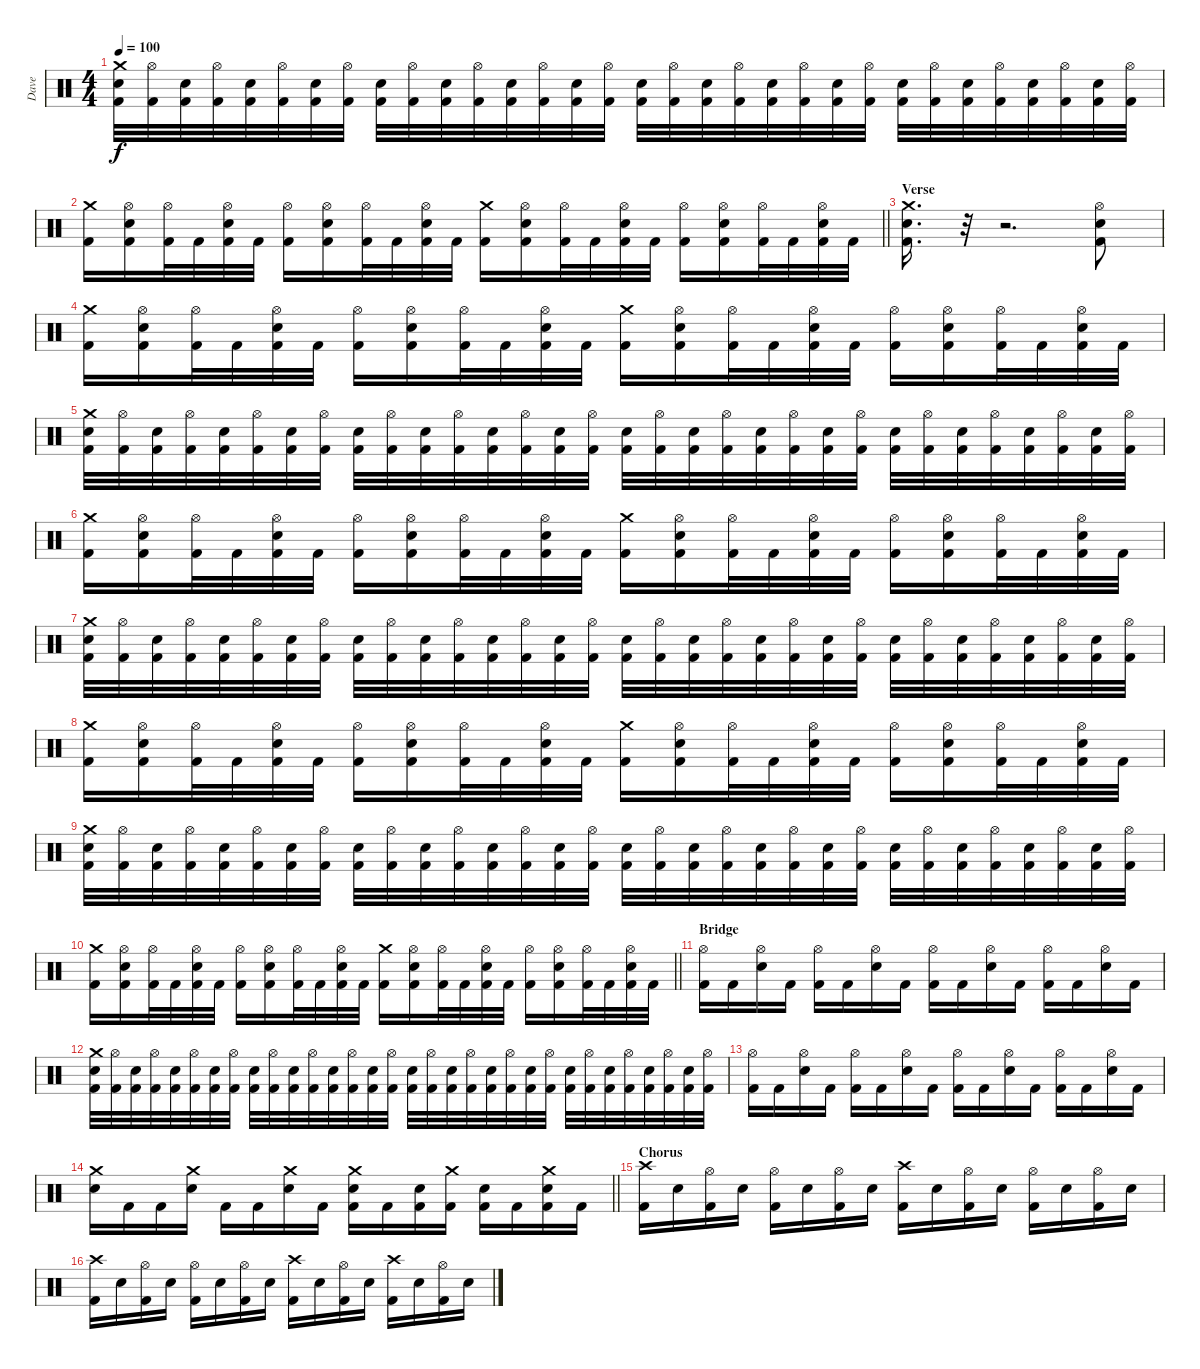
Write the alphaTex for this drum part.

\track ("Dave" "Dave") {instrument percussion}
\staff {score}
\articulation defaults
\ts (4 4)
\tempo 100
\clef neutral
\ks c
("Crash medium (hit)" "Snare (hit) 2" "Kick (hit) 2").32{dy f} ("Hi-Hat (open)" "Kick (hit) 2").32 ("Snare (hit) 2" "Kick (hit) 2").32 ("Hi-Hat (open)" "Kick (hit) 2").32 ("Snare (hit) 2" "Kick (hit) 2").32 ("Hi-Hat (open)" "Kick (hit) 2").32 ("Snare (hit) 2" "Kick (hit) 2").32 ("Hi-Hat (open)" "Kick (hit) 2").32 ("Snare (hit) 2" "Kick (hit) 2").32 ("Hi-Hat (open)" "Kick (hit) 2").32 ("Snare (hit) 2" "Kick (hit) 2").32 ("Hi-Hat (open)" "Kick (hit) 2").32 ("Snare (hit) 2" "Kick (hit) 2").32 ("Hi-Hat (open)" "Kick (hit) 2").32 ("Snare (hit) 2" "Kick (hit) 2").32 ("Hi-Hat (open)" "Kick (hit) 2").32 ("Snare (hit) 2" "Kick (hit) 2").32 ("Hi-Hat (open)" "Kick (hit) 2").32 ("Snare (hit) 2" "Kick (hit) 2").32 ("Hi-Hat (open)" "Kick (hit) 2").32 ("Snare (hit) 2" "Kick (hit) 2").32 ("Hi-Hat (open)" "Kick (hit) 2").32 ("Snare (hit) 2" "Kick (hit) 2").32 ("Hi-Hat (open)" "Kick (hit) 2").32 ("Snare (hit) 2" "Kick (hit) 2").32 ("Hi-Hat (open)" "Kick (hit) 2").32 ("Snare (hit) 2" "Kick (hit) 2").32 ("Hi-Hat (open)" "Kick (hit) 2").32 ("Snare (hit) 2" "Kick (hit) 2").32 ("Hi-Hat (open)" "Kick (hit) 2").32 ("Snare (hit) 2" "Kick (hit) 2").32 ("Hi-Hat (open)" "Kick (hit) 2").32 |
\barLineRight lightlight
("Crash medium (hit)" "Kick (hit) 2").16 ("Hi-Hat (open)" "Snare (hit) 2" "Kick (hit) 2").16 ("Hi-Hat (open)" "Kick (hit) 2").32 "Kick (hit) 2".32 ("Hi-Hat (open)" "Snare (hit) 2" "Kick (hit) 2").32 "Kick (hit) 2".32 ("Hi-Hat (open)" "Kick (hit) 2").16 ("Hi-Hat (open)" "Snare (hit) 2" "Kick (hit) 2").16 ("Hi-Hat (open)" "Kick (hit) 2").32 "Kick (hit) 2".32 ("Hi-Hat (open)" "Snare (hit) 2" "Kick (hit) 2").32 "Kick (hit) 2".32 ("Crash medium (hit)" "Kick (hit) 2").16 ("Hi-Hat (open)" "Snare (hit) 2" "Kick (hit) 2").16 ("Hi-Hat (open)" "Kick (hit) 2").32 "Kick (hit) 2".32 ("Hi-Hat (open)" "Snare (hit) 2" "Kick (hit) 2").32 "Kick (hit) 2".32 ("Hi-Hat (open)" "Kick (hit) 2").16 ("Hi-Hat (open)" "Snare (hit) 2" "Kick (hit) 2").16 ("Hi-Hat (open)" "Kick (hit) 2").32 "Kick (hit) 2".32 ("Hi-Hat (open)" "Snare (hit) 2" "Kick (hit) 2").32 "Kick (hit) 2".32 |
\section ("" "Verse")
("Crash medium (hit)" "Snare (hit) 2" "Kick (hit) 2").16{d} r.32 r.2{d} ("Hi-Hat (open)" "Snare (hit) 2" "Kick (hit) 2").8 |
("Crash medium (hit)" "Kick (hit) 2").16 ("Hi-Hat (open)" "Snare (hit) 2" "Kick (hit) 2").16 ("Hi-Hat (open)" "Kick (hit) 2").32 "Kick (hit) 2".32 ("Hi-Hat (open)" "Snare (hit) 2" "Kick (hit) 2").32 "Kick (hit) 2".32 ("Hi-Hat (open)" "Kick (hit) 2").16 ("Hi-Hat (open)" "Snare (hit) 2" "Kick (hit) 2").16 ("Hi-Hat (open)" "Kick (hit) 2").32 "Kick (hit) 2".32 ("Hi-Hat (open)" "Snare (hit) 2" "Kick (hit) 2").32 "Kick (hit) 2".32 ("Crash medium (hit)" "Kick (hit) 2").16 ("Hi-Hat (open)" "Snare (hit) 2" "Kick (hit) 2").16 ("Hi-Hat (open)" "Kick (hit) 2").32 "Kick (hit) 2".32 ("Hi-Hat (open)" "Snare (hit) 2" "Kick (hit) 2").32 "Kick (hit) 2".32 ("Hi-Hat (open)" "Kick (hit) 2").16 ("Hi-Hat (open)" "Snare (hit) 2" "Kick (hit) 2").16 ("Hi-Hat (open)" "Kick (hit) 2").32 "Kick (hit) 2".32 ("Hi-Hat (open)" "Snare (hit) 2" "Kick (hit) 2").32 "Kick (hit) 2".32 |
("Crash medium (hit)" "Snare (hit) 2" "Kick (hit) 2").32 ("Hi-Hat (open)" "Kick (hit) 2").32 ("Snare (hit) 2" "Kick (hit) 2").32 ("Hi-Hat (open)" "Kick (hit) 2").32 ("Snare (hit) 2" "Kick (hit) 2").32 ("Hi-Hat (open)" "Kick (hit) 2").32 ("Snare (hit) 2" "Kick (hit) 2").32 ("Hi-Hat (open)" "Kick (hit) 2").32 ("Snare (hit) 2" "Kick (hit) 2").32 ("Hi-Hat (open)" "Kick (hit) 2").32 ("Snare (hit) 2" "Kick (hit) 2").32 ("Hi-Hat (open)" "Kick (hit) 2").32 ("Snare (hit) 2" "Kick (hit) 2").32 ("Hi-Hat (open)" "Kick (hit) 2").32 ("Snare (hit) 2" "Kick (hit) 2").32 ("Hi-Hat (open)" "Kick (hit) 2").32 ("Snare (hit) 2" "Kick (hit) 2").32 ("Hi-Hat (open)" "Kick (hit) 2").32 ("Snare (hit) 2" "Kick (hit) 2").32 ("Hi-Hat (open)" "Kick (hit) 2").32 ("Snare (hit) 2" "Kick (hit) 2").32 ("Hi-Hat (open)" "Kick (hit) 2").32 ("Snare (hit) 2" "Kick (hit) 2").32 ("Hi-Hat (open)" "Kick (hit) 2").32 ("Snare (hit) 2" "Kick (hit) 2").32 ("Hi-Hat (open)" "Kick (hit) 2").32 ("Snare (hit) 2" "Kick (hit) 2").32 ("Hi-Hat (open)" "Kick (hit) 2").32 ("Snare (hit) 2" "Kick (hit) 2").32 ("Hi-Hat (open)" "Kick (hit) 2").32 ("Snare (hit) 2" "Kick (hit) 2").32 ("Hi-Hat (open)" "Kick (hit) 2").32 |
("Crash medium (hit)" "Kick (hit) 2").16 ("Hi-Hat (open)" "Snare (hit) 2" "Kick (hit) 2").16 ("Hi-Hat (open)" "Kick (hit) 2").32 "Kick (hit) 2".32 ("Hi-Hat (open)" "Snare (hit) 2" "Kick (hit) 2").32 "Kick (hit) 2".32 ("Hi-Hat (open)" "Kick (hit) 2").16 ("Hi-Hat (open)" "Snare (hit) 2" "Kick (hit) 2").16 ("Hi-Hat (open)" "Kick (hit) 2").32 "Kick (hit) 2".32 ("Hi-Hat (open)" "Snare (hit) 2" "Kick (hit) 2").32 "Kick (hit) 2".32 ("Crash medium (hit)" "Kick (hit) 2").16 ("Hi-Hat (open)" "Snare (hit) 2" "Kick (hit) 2").16 ("Hi-Hat (open)" "Kick (hit) 2").32 "Kick (hit) 2".32 ("Hi-Hat (open)" "Snare (hit) 2" "Kick (hit) 2").32 "Kick (hit) 2".32 ("Hi-Hat (open)" "Kick (hit) 2").16 ("Hi-Hat (open)" "Snare (hit) 2" "Kick (hit) 2").16 ("Hi-Hat (open)" "Kick (hit) 2").32 "Kick (hit) 2".32 ("Hi-Hat (open)" "Snare (hit) 2" "Kick (hit) 2").32 "Kick (hit) 2".32 |
("Crash medium (hit)" "Snare (hit) 2" "Kick (hit) 2").32 ("Hi-Hat (open)" "Kick (hit) 2").32 ("Snare (hit) 2" "Kick (hit) 2").32 ("Hi-Hat (open)" "Kick (hit) 2").32 ("Snare (hit) 2" "Kick (hit) 2").32 ("Hi-Hat (open)" "Kick (hit) 2").32 ("Snare (hit) 2" "Kick (hit) 2").32 ("Hi-Hat (open)" "Kick (hit) 2").32 ("Snare (hit) 2" "Kick (hit) 2").32 ("Hi-Hat (open)" "Kick (hit) 2").32 ("Snare (hit) 2" "Kick (hit) 2").32 ("Hi-Hat (open)" "Kick (hit) 2").32 ("Snare (hit) 2" "Kick (hit) 2").32 ("Hi-Hat (open)" "Kick (hit) 2").32 ("Snare (hit) 2" "Kick (hit) 2").32 ("Hi-Hat (open)" "Kick (hit) 2").32 ("Snare (hit) 2" "Kick (hit) 2").32 ("Hi-Hat (open)" "Kick (hit) 2").32 ("Snare (hit) 2" "Kick (hit) 2").32 ("Hi-Hat (open)" "Kick (hit) 2").32 ("Snare (hit) 2" "Kick (hit) 2").32 ("Hi-Hat (open)" "Kick (hit) 2").32 ("Snare (hit) 2" "Kick (hit) 2").32 ("Hi-Hat (open)" "Kick (hit) 2").32 ("Snare (hit) 2" "Kick (hit) 2").32 ("Hi-Hat (open)" "Kick (hit) 2").32 ("Snare (hit) 2" "Kick (hit) 2").32 ("Hi-Hat (open)" "Kick (hit) 2").32 ("Snare (hit) 2" "Kick (hit) 2").32 ("Hi-Hat (open)" "Kick (hit) 2").32 ("Snare (hit) 2" "Kick (hit) 2").32 ("Hi-Hat (open)" "Kick (hit) 2").32 |
("Crash medium (hit)" "Kick (hit) 2").16 ("Hi-Hat (open)" "Snare (hit) 2" "Kick (hit) 2").16 ("Hi-Hat (open)" "Kick (hit) 2").32 "Kick (hit) 2".32 ("Hi-Hat (open)" "Snare (hit) 2" "Kick (hit) 2").32 "Kick (hit) 2".32 ("Hi-Hat (open)" "Kick (hit) 2").16 ("Hi-Hat (open)" "Snare (hit) 2" "Kick (hit) 2").16 ("Hi-Hat (open)" "Kick (hit) 2").32 "Kick (hit) 2".32 ("Hi-Hat (open)" "Snare (hit) 2" "Kick (hit) 2").32 "Kick (hit) 2".32 ("Crash medium (hit)" "Kick (hit) 2").16 ("Hi-Hat (open)" "Snare (hit) 2" "Kick (hit) 2").16 ("Hi-Hat (open)" "Kick (hit) 2").32 "Kick (hit) 2".32 ("Hi-Hat (open)" "Snare (hit) 2" "Kick (hit) 2").32 "Kick (hit) 2".32 ("Hi-Hat (open)" "Kick (hit) 2").16 ("Hi-Hat (open)" "Snare (hit) 2" "Kick (hit) 2").16 ("Hi-Hat (open)" "Kick (hit) 2").32 "Kick (hit) 2".32 ("Hi-Hat (open)" "Snare (hit) 2" "Kick (hit) 2").32 "Kick (hit) 2".32 |
("Crash medium (hit)" "Snare (hit) 2" "Kick (hit) 2").32 ("Hi-Hat (open)" "Kick (hit) 2").32 ("Snare (hit) 2" "Kick (hit) 2").32 ("Hi-Hat (open)" "Kick (hit) 2").32 ("Snare (hit) 2" "Kick (hit) 2").32 ("Hi-Hat (open)" "Kick (hit) 2").32 ("Snare (hit) 2" "Kick (hit) 2").32 ("Hi-Hat (open)" "Kick (hit) 2").32 ("Snare (hit) 2" "Kick (hit) 2").32 ("Hi-Hat (open)" "Kick (hit) 2").32 ("Snare (hit) 2" "Kick (hit) 2").32 ("Hi-Hat (open)" "Kick (hit) 2").32 ("Snare (hit) 2" "Kick (hit) 2").32 ("Hi-Hat (open)" "Kick (hit) 2").32 ("Snare (hit) 2" "Kick (hit) 2").32 ("Hi-Hat (open)" "Kick (hit) 2").32 ("Snare (hit) 2" "Kick (hit) 2").32 ("Hi-Hat (open)" "Kick (hit) 2").32 ("Snare (hit) 2" "Kick (hit) 2").32 ("Hi-Hat (open)" "Kick (hit) 2").32 ("Snare (hit) 2" "Kick (hit) 2").32 ("Hi-Hat (open)" "Kick (hit) 2").32 ("Snare (hit) 2" "Kick (hit) 2").32 ("Hi-Hat (open)" "Kick (hit) 2").32 ("Snare (hit) 2" "Kick (hit) 2").32 ("Hi-Hat (open)" "Kick (hit) 2").32 ("Snare (hit) 2" "Kick (hit) 2").32 ("Hi-Hat (open)" "Kick (hit) 2").32 ("Snare (hit) 2" "Kick (hit) 2").32 ("Hi-Hat (open)" "Kick (hit) 2").32 ("Snare (hit) 2" "Kick (hit) 2").32 ("Hi-Hat (open)" "Kick (hit) 2").32 |
\barLineRight lightlight
("Crash medium (hit)" "Kick (hit) 2").16 ("Hi-Hat (open)" "Snare (hit) 2" "Kick (hit) 2").16 ("Hi-Hat (open)" "Kick (hit) 2").32 "Kick (hit) 2".32 ("Hi-Hat (open)" "Snare (hit) 2" "Kick (hit) 2").32 "Kick (hit) 2".32 ("Hi-Hat (open)" "Kick (hit) 2").16 ("Hi-Hat (open)" "Snare (hit) 2" "Kick (hit) 2").16 ("Hi-Hat (open)" "Kick (hit) 2").32 "Kick (hit) 2".32 ("Hi-Hat (open)" "Snare (hit) 2" "Kick (hit) 2").32 "Kick (hit) 2".32 ("Crash medium (hit)" "Kick (hit) 2").16 ("Hi-Hat (open)" "Snare (hit) 2" "Kick (hit) 2").16 ("Hi-Hat (open)" "Kick (hit) 2").32 "Kick (hit) 2".32 ("Hi-Hat (open)" "Snare (hit) 2" "Kick (hit) 2").32 "Kick (hit) 2".32 ("Hi-Hat (open)" "Kick (hit) 2").16 ("Hi-Hat (open)" "Snare (hit) 2" "Kick (hit) 2").16 ("Hi-Hat (open)" "Kick (hit) 2").32 "Kick (hit) 2".32 ("Hi-Hat (open)" "Snare (hit) 2" "Kick (hit) 2").32 "Kick (hit) 2".32 |
\section ("" "Bridge")
("Hi-Hat (open)" "Kick (hit) 2").16 "Kick (hit) 2".16 ("Hi-Hat (open)" "Snare (hit) 2").16 "Kick (hit) 2".16 ("Hi-Hat (open)" "Kick (hit) 2").16 "Kick (hit) 2".16 ("Hi-Hat (open)" "Snare (hit) 2").16 "Kick (hit) 2".16 ("Hi-Hat (open)" "Kick (hit) 2").16 "Kick (hit) 2".16 ("Hi-Hat (open)" "Snare (hit) 2").16 "Kick (hit) 2".16 ("Hi-Hat (open)" "Kick (hit) 2").16 "Kick (hit) 2".16 ("Hi-Hat (open)" "Snare (hit) 2").16 "Kick (hit) 2".16 |
("Crash medium (hit)" "Snare (hit) 2" "Kick (hit) 2").32 ("Hi-Hat (open)" "Kick (hit) 2").32 ("Snare (hit) 2" "Kick (hit) 2").32 ("Hi-Hat (open)" "Kick (hit) 2").32 ("Snare (hit) 2" "Kick (hit) 2").32 ("Hi-Hat (open)" "Kick (hit) 2").32 ("Snare (hit) 2" "Kick (hit) 2").32 ("Hi-Hat (open)" "Kick (hit) 2").32 ("Snare (hit) 2" "Kick (hit) 2").32 ("Hi-Hat (open)" "Kick (hit) 2").32 ("Snare (hit) 2" "Kick (hit) 2").32 ("Hi-Hat (open)" "Kick (hit) 2").32 ("Snare (hit) 2" "Kick (hit) 2").32 ("Hi-Hat (open)" "Kick (hit) 2").32 ("Snare (hit) 2" "Kick (hit) 2").32 ("Hi-Hat (open)" "Kick (hit) 2").32 ("Snare (hit) 2" "Kick (hit) 2").32 ("Hi-Hat (open)" "Kick (hit) 2").32 ("Snare (hit) 2" "Kick (hit) 2").32 ("Hi-Hat (open)" "Kick (hit) 2").32 ("Snare (hit) 2" "Kick (hit) 2").32 ("Hi-Hat (open)" "Kick (hit) 2").32 ("Snare (hit) 2" "Kick (hit) 2").32 ("Hi-Hat (open)" "Kick (hit) 2").32 ("Snare (hit) 2" "Kick (hit) 2").32 ("Hi-Hat (open)" "Kick (hit) 2").32 ("Snare (hit) 2" "Kick (hit) 2").32 ("Hi-Hat (open)" "Kick (hit) 2").32 ("Snare (hit) 2" "Kick (hit) 2").32 ("Hi-Hat (open)" "Kick (hit) 2").32 ("Snare (hit) 2" "Kick (hit) 2").32 ("Hi-Hat (open)" "Kick (hit) 2").32 |
("Hi-Hat (open)" "Kick (hit) 2").16 "Kick (hit) 2".16 ("Hi-Hat (open)" "Snare (hit) 2").16 "Kick (hit) 2".16 ("Hi-Hat (open)" "Kick (hit) 2").16 "Kick (hit) 2".16 ("Hi-Hat (open)" "Snare (hit) 2").16 "Kick (hit) 2".16 ("Hi-Hat (open)" "Kick (hit) 2").16 "Kick (hit) 2".16 ("Hi-Hat (open)" "Snare (hit) 2").16 "Kick (hit) 2".16 ("Hi-Hat (open)" "Kick (hit) 2").16 "Kick (hit) 2".16 ("Hi-Hat (open)" "Snare (hit) 2").16 "Kick (hit) 2".16 |
\barLineRight lightlight
("Crash medium (hit)" "Snare (hit) 2").16 "Kick (hit) 2".16 "Kick (hit) 2".16 ("Crash medium (hit)" "Snare (hit) 2").16 "Kick (hit) 2".16 "Kick (hit) 2".16 ("Crash medium (hit)" "Snare (hit) 2").16 "Kick (hit) 2".16 ("Crash medium (hit)" "Snare (hit) 2" "Kick (hit) 2").16 "Kick (hit) 2".16 ("Snare (hit) 2" "Kick (hit) 2").16 ("Crash medium (hit)" "Kick (hit) 2").16 ("Snare (hit) 2" "Kick (hit) 2").16 "Kick (hit) 2".16 ("Crash medium (hit)" "Snare (hit) 2" "Kick (hit) 2").16 "Kick (hit) 2".16 |
\section ("" "Chorus")
("Crash high (hit)" "Kick (hit) 2").16 "Snare (hit) 2".16 ("Hi-Hat (open)" "Kick (hit) 2").16 "Snare (hit) 2".16 ("Hi-Hat (open)" "Kick (hit) 2").16 "Snare (hit) 2".16 ("Hi-Hat (open)" "Kick (hit) 2").16 "Snare (hit) 2".16 ("Crash high (hit)" "Kick (hit) 2").16 "Snare (hit) 2".16 ("Hi-Hat (open)" "Kick (hit) 2").16 "Snare (hit) 2".16 ("Hi-Hat (open)" "Kick (hit) 2").16 "Snare (hit) 2".16 ("Hi-Hat (open)" "Kick (hit) 2").16 "Snare (hit) 2".16 |
("Crash high (hit)" "Kick (hit) 2").16 "Snare (hit) 2".16 ("Hi-Hat (open)" "Kick (hit) 2").16 "Snare (hit) 2".16 ("Hi-Hat (open)" "Kick (hit) 2").16 "Snare (hit) 2".16 ("Hi-Hat (open)" "Kick (hit) 2").16 "Snare (hit) 2".16 ("Crash high (hit)" "Kick (hit) 2").16 "Snare (hit) 2".16 ("Hi-Hat (open)" "Kick (hit) 2").16 "Snare (hit) 2".16 ("Crash high (hit)" "Kick (hit) 2").16 "Snare (hit) 2".16 ("Hi-Hat (open)" "Kick (hit) 2").16 "Snare (hit) 2".16
